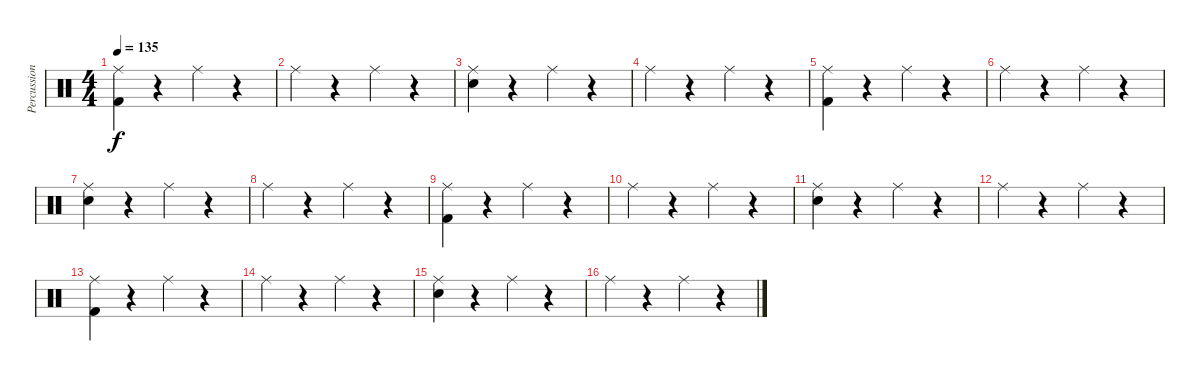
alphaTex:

\track ("Percussion" "Percussion") {instrument percussion}
\staff {score}
\articulation defaults
\ts (4 4)
\tempo 135
\clef neutral
\ks c
("Ride (middle)" "Kick (hit) 2").4{dy f} r.4 "Ride (middle)".4 r.4 |
"Ride (middle)".4 r.4 "Ride (middle)".4 r.4 |
("Ride (middle)" "Electric Snare (hit)").4 r.4 "Ride (middle)".4 r.4 |
"Ride (middle)".4 r.4 "Ride (middle)".4 r.4 |
("Ride (middle)" "Kick (hit) 2").4 r.4 "Ride (middle)".4 r.4 |
"Ride (middle)".4 r.4 "Ride (middle)".4 r.4 |
("Ride (middle)" "Electric Snare (hit)").4 r.4 "Ride (middle)".4 r.4 |
"Ride (middle)".4 r.4 "Ride (middle)".4 r.4 |
("Ride (middle)" "Kick (hit) 2").4 r.4 "Ride (middle)".4 r.4 |
"Ride (middle)".4 r.4 "Ride (middle)".4 r.4 |
("Ride (middle)" "Electric Snare (hit)").4 r.4 "Ride (middle)".4 r.4 |
"Ride (middle)".4 r.4 "Ride (middle)".4 r.4 |
("Ride (middle)" "Kick (hit) 2").4 r.4 "Ride (middle)".4 r.4 |
"Ride (middle)".4 r.4 "Ride (middle)".4 r.4 |
("Ride (middle)" "Electric Snare (hit)").4 r.4 "Ride (middle)".4 r.4 |
"Ride (middle)".4 r.4 "Ride (middle)".4 r.4
